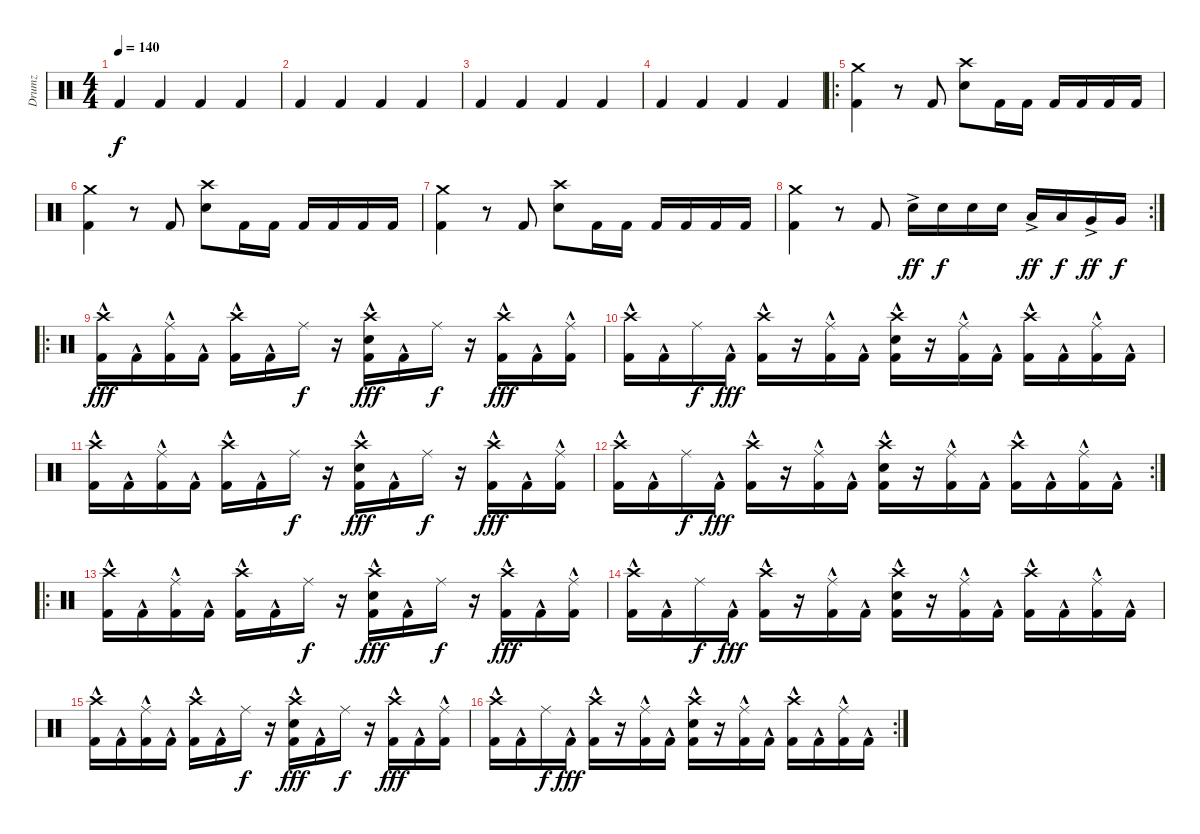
\track ("Drumz" "Drumz") {instrument percussion}
\staff {score}
\articulation defaults
\ts (4 4)
\tempo 140
\clef neutral
\ks c "Kick (hit) 2".4{dy f} "Kick (hit) 2".4 "Kick (hit) 2".4 "Kick (hit) 2".4
|
"Kick (hit) 2".4 "Kick (hit) 2".4 "Kick (hit) 2".4 "Kick (hit) 2".4 |
"Kick (hit) 2".4 "Kick (hit) 2".4 "Kick (hit) 2".4 "Kick (hit) 2".4 |
"Kick (hit) 2".4 "Kick (hit) 2".4 "Kick (hit) 2".4 "Kick (hit) 2".4 |
\ro
("Crash medium (hit)" "Kick (hit) 2").4 r.8 "Kick (hit) 2".8 ("Crash high (hit)" "Electric Snare (hit)").8 "Kick (hit) 2".16 "Kick (hit) 2".16 "Kick (hit) 2".16 "Kick (hit) 2".16 "Kick (hit) 2".16 "Kick (hit) 2".16 |
("Crash medium (hit)" "Kick (hit) 2").4 r.8 "Kick (hit) 2".8 ("Crash high (hit)" "Electric Snare (hit)").8 "Kick (hit) 2".16 "Kick (hit) 2".16 "Kick (hit) 2".16 "Kick (hit) 2".16 "Kick (hit) 2".16 "Kick (hit) 2".16 |
("Crash medium (hit)" "Kick (hit) 2").4 r.8 "Kick (hit) 2".8 ("Crash high (hit)" "Electric Snare (hit)").8 "Kick (hit) 2".16 "Kick (hit) 2".16 "Kick (hit) 2".16 "Kick (hit) 2".16 "Kick (hit) 2".16 "Kick (hit) 2".16 |
\rc 2
("Crash medium (hit)" "Kick (hit) 2").4 r.8 "Kick (hit) 2".8 "Electric Snare (hit)"{ac}.16{dy ff} "Electric Snare (hit)".16{dy f} "Electric Snare (hit)".16 "Electric Snare (hit)".16 "Low Tom (hit)"{ac}.16{dy ff} "Low Tom (hit)".16{dy f} "Very Low Tom (hit)"{ac}.16{dy ff} "Very Low Tom (hit)".16{dy f} |
\ro
("Crash high (hit)" "Kick (hit) 2"{hac}).16{dy fff} "Kick (hit) 2"{hac}.16 ("Ride (middle)" "Kick (hit) 2"{hac}).16 "Kick (hit) 2"{hac}.16 ("Crash high (hit)" "Kick (hit) 2"{hac}).16 "Kick (hit) 2"{hac}.16 "Ride (middle)".16{dy f} r.16 ("Crash high (hit)" "Electric Snare (hit)" "Kick (hit) 2"{hac}).16{dy fff} "Kick (hit) 2"{hac}.16 "Ride (middle)".16{dy f} r.16 ("Crash high (hit)" "Kick (hit) 2"{hac}).16{dy fff} "Kick (hit) 2"{hac}.16 ("Ride (middle)" "Kick (hit) 2"{hac}).16 |
("Crash high (hit)" "Kick (hit) 2"{hac}).16 "Kick (hit) 2"{hac}.16 "Ride (middle)".16{dy f} "Kick (hit) 2"{hac}.16{dy fff} ("Crash high (hit)" "Kick (hit) 2"{hac}).16 r.16 ("Ride (middle)" "Kick (hit) 2"{hac}).16 "Kick (hit) 2"{hac}.16 ("Crash high (hit)" "Electric Snare (hit)" "Kick (hit) 2"{hac}).16 r.16 ("Ride (middle)" "Kick (hit) 2"{hac}).16 "Kick (hit) 2"{hac}.16 ("Crash high (hit)" "Kick (hit) 2"{hac}).16 "Kick (hit) 2"{hac}.16 ("Ride (middle)" "Kick (hit) 2"{hac}).16 "Kick (hit) 2"{hac}.16 |
("Crash high (hit)" "Kick (hit) 2"{hac}).16 "Kick (hit) 2"{hac}.16 ("Ride (middle)" "Kick (hit) 2"{hac}).16 "Kick (hit) 2"{hac}.16 ("Crash high (hit)" "Kick (hit) 2"{hac}).16 "Kick (hit) 2"{hac}.16 "Ride (middle)".16{dy f} r.16 ("Crash high (hit)" "Electric Snare (hit)" "Kick (hit) 2"{hac}).16{dy fff} "Kick (hit) 2"{hac}.16 "Ride (middle)".16{dy f} r.16 ("Crash high (hit)" "Kick (hit) 2"{hac}).16{dy fff} "Kick (hit) 2"{hac}.16 ("Ride (middle)" "Kick (hit) 2"{hac}).16 |
\rc 2
("Crash high (hit)" "Kick (hit) 2"{hac}).16 "Kick (hit) 2"{hac}.16 "Ride (middle)".16{dy f} "Kick (hit) 2"{hac}.16{dy fff} ("Crash high (hit)" "Kick (hit) 2"{hac}).16 r.16 ("Ride (middle)" "Kick (hit) 2"{hac}).16 "Kick (hit) 2"{hac}.16 ("Crash high (hit)" "Electric Snare (hit)" "Kick (hit) 2"{hac}).16 r.16 ("Ride (middle)" "Kick (hit) 2"{hac}).16 "Kick (hit) 2"{hac}.16 ("Crash high (hit)" "Kick (hit) 2"{hac}).16 "Kick (hit) 2"{hac}.16 ("Ride (middle)" "Kick (hit) 2"{hac}).16 "Kick (hit) 2"{hac}.16 |
\ro
("Crash high (hit)" "Kick (hit) 2"{hac}).16 "Kick (hit) 2"{hac}.16 ("Ride (middle)" "Kick (hit) 2"{hac}).16 "Kick (hit) 2"{hac}.16 ("Crash high (hit)" "Kick (hit) 2"{hac}).16 "Kick (hit) 2"{hac}.16 "Ride (middle)".16{dy f} r.16 ("Crash high (hit)" "Electric Snare (hit)" "Kick (hit) 2"{hac}).16{dy fff} "Kick (hit) 2"{hac}.16 "Ride (middle)".16{dy f} r.16 ("Crash high (hit)" "Kick (hit) 2"{hac}).16{dy fff} "Kick (hit) 2"{hac}.16 ("Ride (middle)" "Kick (hit) 2"{hac}).16 |
("Crash high (hit)" "Kick (hit) 2"{hac}).16 "Kick (hit) 2"{hac}.16 "Ride (middle)".16{dy f} "Kick (hit) 2"{hac}.16{dy fff} ("Crash high (hit)" "Kick (hit) 2"{hac}).16 r.16 ("Ride (middle)" "Kick (hit) 2"{hac}).16 "Kick (hit) 2"{hac}.16 ("Crash high (hit)" "Electric Snare (hit)" "Kick (hit) 2"{hac}).16 r.16 ("Ride (middle)" "Kick (hit) 2"{hac}).16 "Kick (hit) 2"{hac}.16 ("Crash high (hit)" "Kick (hit) 2"{hac}).16 "Kick (hit) 2"{hac}.16 ("Ride (middle)" "Kick (hit) 2"{hac}).16 "Kick (hit) 2"{hac}.16 |
("Crash high (hit)" "Kick (hit) 2"{hac}).16 "Kick (hit) 2"{hac}.16 ("Ride (middle)" "Kick (hit) 2"{hac}).16 "Kick (hit) 2"{hac}.16 ("Crash high (hit)" "Kick (hit) 2"{hac}).16 "Kick (hit) 2"{hac}.16 "Ride (middle)".16{dy f} r.16 ("Crash high (hit)" "Electric Snare (hit)" "Kick (hit) 2"{hac}).16{dy fff} "Kick (hit) 2"{hac}.16 "Ride (middle)".16{dy f} r.16 ("Crash high (hit)" "Kick (hit) 2"{hac}).16{dy fff} "Kick (hit) 2"{hac}.16 ("Ride (middle)" "Kick (hit) 2"{hac}).16 |
\rc 2
("Crash high (hit)" "Kick (hit) 2"{hac}).16 "Kick (hit) 2"{hac}.16 "Ride (middle)".16{dy f} "Kick (hit) 2"{hac}.16{dy fff} ("Crash high (hit)" "Kick (hit) 2"{hac}).16 r.16 ("Ride (middle)" "Kick (hit) 2"{hac}).16 "Kick (hit) 2"{hac}.16 ("Crash high (hit)" "Electric Snare (hit)" "Kick (hit) 2"{hac}).16 r.16 ("Ride (middle)" "Kick (hit) 2"{hac}).16 "Kick (hit) 2"{hac}.16 ("Crash high (hit)" "Kick (hit) 2"{hac}).16 "Kick (hit) 2"{hac}.16 ("Ride (middle)" "Kick (hit) 2"{hac}).16 "Kick (hit) 2"{hac}.16
